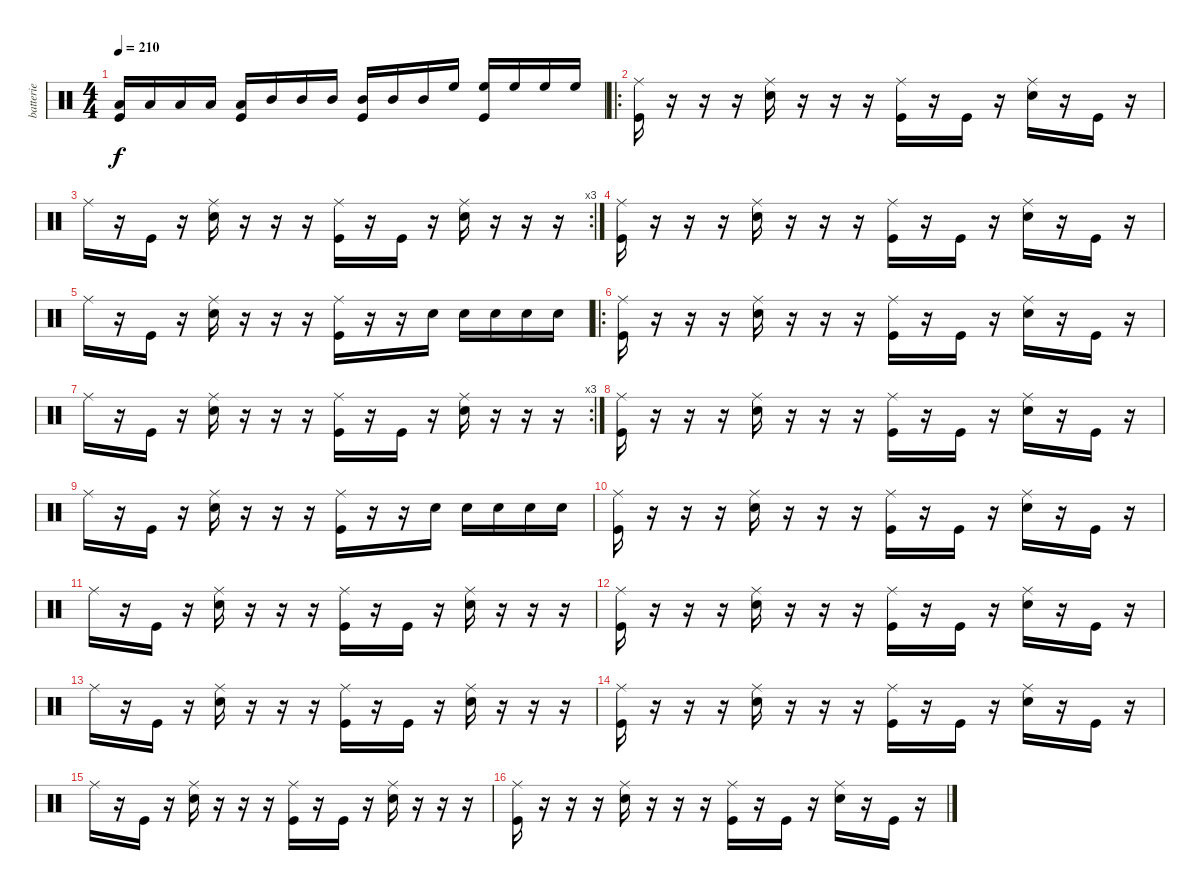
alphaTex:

\track ("batterie " "batterie ") {instrument percussion}
\staff {score}
\articulation defaults
\ts (4 4)
\tempo 210
\clef neutral
\ks c
("Low Tom (hit)" "Kick (hit)").16{dy f} "Low Tom (hit)".16 "Low Tom (hit)".16 "Low Tom (hit)".16 ("Low Tom (hit)" "Kick (hit)").16 "Mid Tom (hit)".16 "Mid Tom (hit)".16 "Mid Tom (hit)".16 ("Mid Tom (hit)" "Kick (hit)").16 "Mid Tom (hit)".16 "Mid Tom (hit)".16 "High Floor Tom (hit)".16 ("High Floor Tom (hit)" "Kick (hit)").16 "High Floor Tom (hit)".16 "High Floor Tom (hit)".16 "High Floor Tom (hit)".16 |
\ro
("Ride (middle)" "Kick (hit)").16 r.16 r.16 r.16 ("Ride (middle)" "Snare (hit) 2").16 r.16 r.16 r.16 ("Ride (middle)" "Kick (hit)").16 r.16 "Kick (hit)".16 r.16 ("Ride (middle)" "Snare (hit) 2").16 r.16 "Kick (hit)".16 r.16 |
\rc 3 "Ride (middle)".16
r.16 "Kick (hit)".16 r.16 ("Ride (middle)" "Snare (hit) 2").16 r.16 r.16 r.16 ("Ride (middle)" "Kick (hit)").16 r.16 "Kick (hit)".16 r.16 ("Ride (middle)" "Snare (hit) 2").16 r.16 r.16 r.16 |
("Ride (middle)" "Kick (hit)").16 r.16 r.16 r.16 ("Ride (middle)" "Snare (hit) 2").16 r.16 r.16 r.16 ("Ride (middle)" "Kick (hit)").16 r.16 "Kick (hit)".16 r.16 ("Ride (middle)" "Snare (hit) 2").16 r.16 "Kick (hit)".16 r.16 |
"Ride (middle)".16 r.16 "Kick (hit)".16 r.16 ("Ride (middle)" "Snare (hit) 2").16 r.16 r.16 r.16 ("Ride (middle)" "Kick (hit)").16 r.16 r.16 "Snare (hit) 2".16 "Snare (hit) 2".16 "Snare (hit) 2".16 "Snare (hit) 2".16 "Snare (hit) 2".16 |
\ro
("Ride (middle)" "Kick (hit)").16 r.16 r.16 r.16 ("Ride (middle)" "Snare (hit) 2").16 r.16 r.16 r.16 ("Ride (middle)" "Kick (hit)").16 r.16 "Kick (hit)".16 r.16 ("Ride (middle)" "Snare (hit) 2").16 r.16 "Kick (hit)".16 r.16 |
\rc 3 "Ride (middle)".16
r.16 "Kick (hit)".16 r.16 ("Ride (middle)" "Snare (hit) 2").16 r.16 r.16 r.16 ("Ride (middle)" "Kick (hit)").16 r.16 "Kick (hit)".16 r.16 ("Ride (middle)" "Snare (hit) 2").16 r.16 r.16 r.16 |
("Ride (middle)" "Kick (hit)").16 r.16 r.16 r.16 ("Ride (middle)" "Snare (hit) 2").16 r.16 r.16 r.16 ("Ride (middle)" "Kick (hit)").16 r.16 "Kick (hit)".16 r.16 ("Ride (middle)" "Snare (hit) 2").16 r.16 "Kick (hit)".16 r.16 |
"Ride (middle)".16 r.16 "Kick (hit)".16 r.16 ("Ride (middle)" "Snare (hit) 2").16 r.16 r.16 r.16 ("Ride (middle)" "Kick (hit)").16 r.16 r.16 "Snare (hit) 2".16 "Snare (hit) 2".16 "Snare (hit) 2".16 "Snare (hit) 2".16 "Snare (hit) 2".16 |
("Ride (middle)" "Kick (hit)").16 r.16 r.16 r.16 ("Ride (middle)" "Snare (hit) 2").16 r.16 r.16 r.16 ("Ride (middle)" "Kick (hit)").16 r.16 "Kick (hit)".16 r.16 ("Ride (middle)" "Snare (hit) 2").16 r.16 "Kick (hit)".16 r.16 |
"Ride (middle)".16 r.16 "Kick (hit)".16 r.16 ("Ride (middle)" "Snare (hit) 2").16 r.16 r.16 r.16 ("Ride (middle)" "Kick (hit)").16 r.16 "Kick (hit)".16 r.16 ("Ride (middle)" "Snare (hit) 2").16 r.16 r.16 r.16 |
("Ride (middle)" "Kick (hit)").16 r.16 r.16 r.16 ("Ride (middle)" "Snare (hit) 2").16 r.16 r.16 r.16 ("Ride (middle)" "Kick (hit)").16 r.16 "Kick (hit)".16 r.16 ("Ride (middle)" "Snare (hit) 2").16 r.16 "Kick (hit)".16 r.16 |
"Ride (middle)".16 r.16 "Kick (hit)".16 r.16 ("Ride (middle)" "Snare (hit) 2").16 r.16 r.16 r.16 ("Ride (middle)" "Kick (hit)").16 r.16 "Kick (hit)".16 r.16 ("Ride (middle)" "Snare (hit) 2").16 r.16 r.16 r.16 |
("Ride (middle)" "Kick (hit)").16 r.16 r.16 r.16 ("Ride (middle)" "Snare (hit) 2").16 r.16 r.16 r.16 ("Ride (middle)" "Kick (hit)").16 r.16 "Kick (hit)".16 r.16 ("Ride (middle)" "Snare (hit) 2").16 r.16 "Kick (hit)".16 r.16 |
"Ride (middle)".16 r.16 "Kick (hit)".16 r.16 ("Ride (middle)" "Snare (hit) 2").16 r.16 r.16 r.16 ("Ride (middle)" "Kick (hit)").16 r.16 "Kick (hit)".16 r.16 ("Ride (middle)" "Snare (hit) 2").16 r.16 r.16 r.16 |
("Ride (middle)" "Kick (hit)").16 r.16 r.16 r.16 ("Ride (middle)" "Snare (hit) 2").16 r.16 r.16 r.16 ("Ride (middle)" "Kick (hit)").16 r.16 "Kick (hit)".16 r.16 ("Ride (middle)" "Snare (hit) 2").16 r.16 "Kick (hit)".16 r.16
